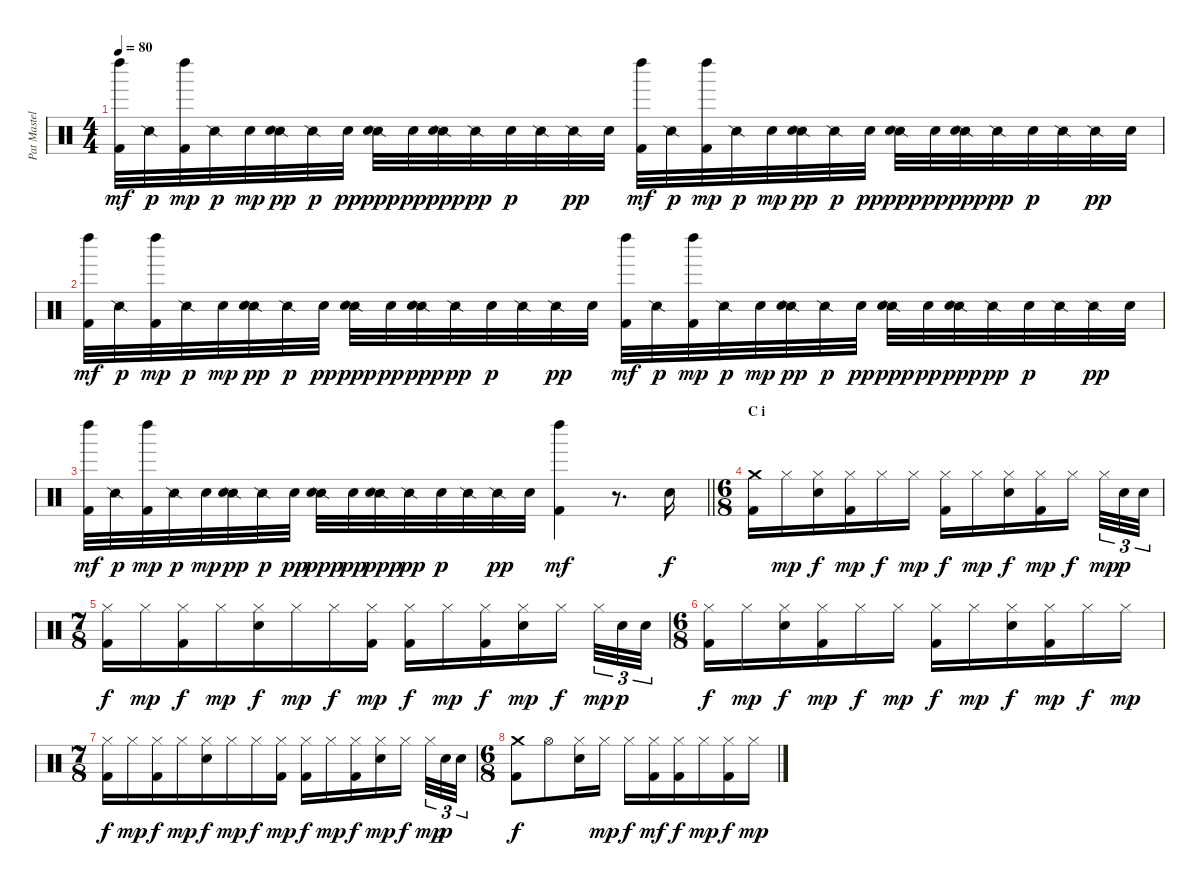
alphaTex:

\track ("Pat Mastelotto (Traps / Buttons)" "Pat Mastel") {instrument percussion}
\staff {score}
\articulation defaults
\ts (4 4)
\tempo 80
\clef neutral
\ks c
("Left Maraca (hit)" "Kick (hit) 2").32{dy mf} "Snare (side stick) 2".32{dy p} ("Left Maraca (hit)" "Kick (hit) 2").32{dy mp} "Snare (side stick) 2".32{dy p} "Electric Snare (hit)".32{dy mp} ("Snare (side stick) 2" "Electric Snare (hit)").32{dy pp} "Snare (side stick) 2".32{dy p} "Electric Snare (hit)".32{dy pp} ("Snare (side stick) 2" "Electric Snare (hit)").32{dy ppp} "Electric Snare (hit)".32{dy pp} ("Snare (side stick) 2" "Electric Snare (hit)").32{dy ppp} "Snare (side stick) 2".32{dy pp} "Electric Snare (hit)".32{dy p} "Snare (side stick) 2".32 "Snare (side stick) 2".32{dy pp} "Electric Snare (hit)".32 ("Left Maraca (hit)" "Kick (hit) 2").32{dy mf} "Snare (side stick) 2".32{dy p} ("Left Maraca (hit)" "Kick (hit) 2").32{dy mp} "Snare (side stick) 2".32{dy p} "Electric Snare (hit)".32{dy mp} ("Snare (side stick) 2" "Electric Snare (hit)").32{dy pp} "Snare (side stick) 2".32{dy p} "Electric Snare (hit)".32{dy pp} ("Snare (side stick) 2" "Electric Snare (hit)").32{dy ppp} "Electric Snare (hit)".32{dy pp} ("Snare (side stick) 2" "Electric Snare (hit)").32{dy ppp} "Snare (side stick) 2".32{dy pp} "Electric Snare (hit)".32{dy p} "Snare (side stick) 2".32 "Snare (side stick) 2".32{dy pp} "Electric Snare (hit)".32 |
("Left Maraca (hit)" "Kick (hit) 2").32{dy mf} "Snare (side stick) 2".32{dy p} ("Left Maraca (hit)" "Kick (hit) 2").32{dy mp} "Snare (side stick) 2".32{dy p} "Electric Snare (hit)".32{dy mp} ("Snare (side stick) 2" "Electric Snare (hit)").32{dy pp} "Snare (side stick) 2".32{dy p} "Electric Snare (hit)".32{dy pp} ("Snare (side stick) 2" "Electric Snare (hit)").32{dy ppp} "Electric Snare (hit)".32{dy pp} ("Snare (side stick) 2" "Electric Snare (hit)").32{dy ppp} "Snare (side stick) 2".32{dy pp} "Electric Snare (hit)".32{dy p} "Snare (side stick) 2".32 "Snare (side stick) 2".32{dy pp} "Electric Snare (hit)".32 ("Left Maraca (hit)" "Kick (hit) 2").32{dy mf} "Snare (side stick) 2".32{dy p} ("Left Maraca (hit)" "Kick (hit) 2").32{dy mp} "Snare (side stick) 2".32{dy p} "Electric Snare (hit)".32{dy mp} ("Snare (side stick) 2" "Electric Snare (hit)").32{dy pp} "Snare (side stick) 2".32{dy p} "Electric Snare (hit)".32{dy pp} ("Snare (side stick) 2" "Electric Snare (hit)").32{dy ppp} "Electric Snare (hit)".32{dy pp} ("Snare (side stick) 2" "Electric Snare (hit)").32{dy ppp} "Snare (side stick) 2".32{dy pp} "Electric Snare (hit)".32{dy p} "Snare (side stick) 2".32 "Snare (side stick) 2".32{dy pp} "Electric Snare (hit)".32 |
\barLineRight lightlight
("Left Maraca (hit)" "Kick (hit) 2").32{dy mf} "Snare (side stick) 2".32{dy p} ("Left Maraca (hit)" "Kick (hit) 2").32{dy mp} "Snare (side stick) 2".32{dy p} "Electric Snare (hit)".32{dy mp} ("Snare (side stick) 2" "Electric Snare (hit)").32{dy pp} "Snare (side stick) 2".32{dy p} "Electric Snare (hit)".32{dy pp} ("Snare (side stick) 2" "Electric Snare (hit)").32{dy ppp} "Electric Snare (hit)".32{dy pp} ("Snare (side stick) 2" "Electric Snare (hit)").32{dy ppp} "Snare (side stick) 2".32{dy pp} "Electric Snare (hit)".32{dy p} "Snare (side stick) 2".32 "Snare (side stick) 2".32{dy pp} "Electric Snare (hit)".32 ("Left Maraca (hit)" "Kick (hit) 2").4{dy mf} r.8{d} "Electric Snare (hit)".16{dy f} |
\ts (6 8)
\section ("" "C i")
("Crash medium (hit)" "Kick (hit) 2").16 "Hi-Hat (closed)".16{dy mp} ("Hi-Hat (closed)" "Electric Snare (hit)").16{dy f} ("Hi-Hat (closed)" "Kick (hit) 2").16{dy mp} "Hi-Hat (closed)".16{dy f} "Hi-Hat (closed)".16{dy mp} ("Hi-Hat (closed)" "Kick (hit) 2").16{dy f} "Hi-Hat (closed)".16{dy mp} ("Hi-Hat (closed)" "Electric Snare (hit)").16{dy f} ("Hi-Hat (closed)" "Kick (hit) 2").16{dy mp} "Hi-Hat (closed)".16{dy f beam splitsecondary} "Hi-Hat (closed)".32{tu (3 2) dy mp} "Electric Snare (hit)".32{tu (3 2) dy p} "Electric Snare (hit)".32{tu (3 2)} |
\ts (7 8)
("Hi-Hat (closed)" "Kick (hit) 2").16{dy f} "Hi-Hat (closed)".16{dy mp} ("Hi-Hat (closed)" "Kick (hit) 2").16{dy f} "Hi-Hat (closed)".16{dy mp} ("Hi-Hat (closed)" "Electric Snare (hit)").16{dy f} "Hi-Hat (closed)".16{dy mp} "Hi-Hat (closed)".16{dy f} ("Hi-Hat (closed)" "Kick (hit) 2").16{dy mp} ("Hi-Hat (closed)" "Kick (hit) 2").16{dy f} "Hi-Hat (closed)".16{dy mp} ("Hi-Hat (closed)" "Kick (hit) 2").16{dy f} ("Hi-Hat (closed)" "Electric Snare (hit)").16{dy mp} "Hi-Hat (closed)".16{dy f beam splitsecondary} "Hi-Hat (closed)".32{tu (3 2) dy mp} "Electric Snare (hit)".32{tu (3 2) dy p} "Electric Snare (hit)".32{tu (3 2)} |
\ts (6 8)
("Hi-Hat (closed)" "Kick (hit) 2").16{dy f} "Hi-Hat (closed)".16{dy mp} ("Hi-Hat (closed)" "Electric Snare (hit)").16{dy f} ("Hi-Hat (closed)" "Kick (hit) 2").16{dy mp} "Hi-Hat (closed)".16{dy f} "Hi-Hat (closed)".16{dy mp} ("Hi-Hat (closed)" "Kick (hit) 2").16{dy f} "Hi-Hat (closed)".16{dy mp} ("Hi-Hat (closed)" "Electric Snare (hit)").16{dy f} ("Hi-Hat (closed)" "Kick (hit) 2").16{dy mp} "Hi-Hat (closed)".16{dy f} "Hi-Hat (closed)".16{dy mp} |
\ts (7 8)
("Hi-Hat (closed)" "Kick (hit) 2").16{dy f} "Hi-Hat (closed)".16{dy mp} ("Hi-Hat (closed)" "Kick (hit) 2").16{dy f} "Hi-Hat (closed)".16{dy mp} ("Hi-Hat (closed)" "Electric Snare (hit)").16{dy f} "Hi-Hat (closed)".16{dy mp} "Hi-Hat (closed)".16{dy f} ("Hi-Hat (closed)" "Kick (hit) 2").16{dy mp} ("Hi-Hat (closed)" "Kick (hit) 2").16{dy f} "Hi-Hat (closed)".16{dy mp} ("Hi-Hat (closed)" "Kick (hit) 2").16{dy f} ("Hi-Hat (closed)" "Electric Snare (hit)").16{dy mp} "Hi-Hat (closed)".16{dy f beam splitsecondary} "Hi-Hat (closed)".32{tu (3 2) dy mp} "Electric Snare (hit)".32{tu (3 2) dy p} "Electric Snare (hit)".32{tu (3 2)} |
\ts (6 8)
("Crash medium (hit)" "Kick (hit) 2").8{dy f} "Hi-Hat (open)".8 ("Hi-Hat (closed)" "Electric Snare (hit)").16 "Hi-Hat (closed)".16{dy mp} "Hi-Hat (closed)".16{dy f} ("Hi-Hat (closed)" "Kick (hit) 2").16{dy mf} ("Hi-Hat (closed)" "Kick (hit) 2").16{dy f} "Hi-Hat (closed)".16{dy mp} ("Hi-Hat (closed)" "Kick (hit) 2").16{dy f} "Hi-Hat (closed)".16{dy mp}
